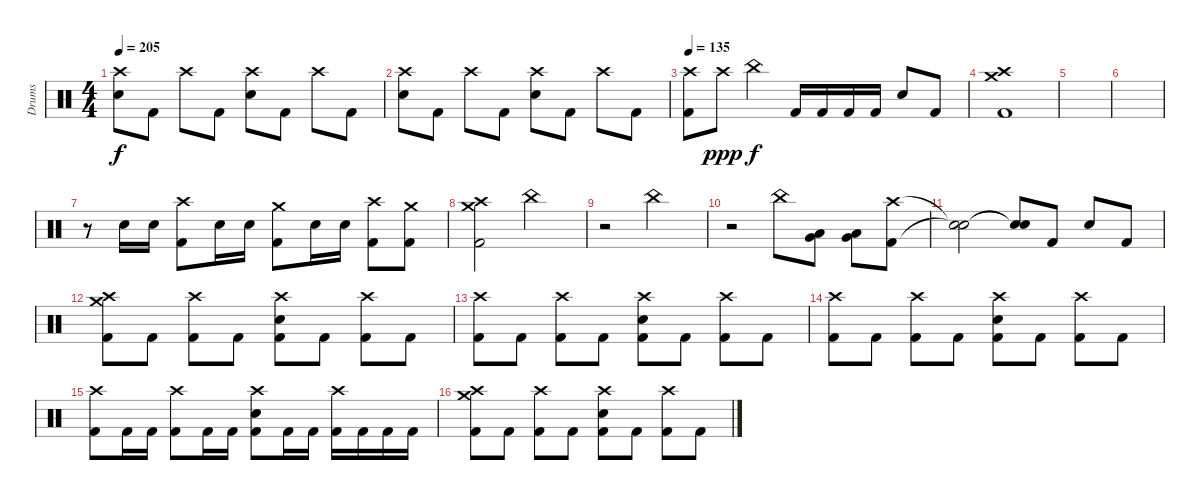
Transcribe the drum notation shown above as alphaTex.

\track ("Drums" "Drums") {instrument percussion}
\staff {score}
\articulation defaults
\ts (4 4)
\tempo 205
\clef neutral
\ks c
("Crash high (hit)" "Electric Snare (hit)").8{dy f} "Kick (hit) 2".8 "Crash high (hit)".8 "Kick (hit) 2".8 ("Crash high (hit)" "Electric Snare (hit)").8 "Kick (hit) 2".8 "Crash high (hit)".8 "Kick (hit) 2".8 |
("Crash high (hit)" "Electric Snare (hit)").8 "Kick (hit) 2".8 "Crash high (hit)".8 "Kick (hit) 2".8 ("Crash high (hit)" "Electric Snare (hit)").8 "Kick (hit) 2".8 "Crash high (hit)".8 "Kick (hit) 2".8 |
\tempo 135
("Crash high (hit)" "Kick (hit) 2").8 "Crash high (hit)".8{dy ppp} "China (hit)".4{dy f} "Kick (hit) 2".16 "Kick (hit) 2".16 "Kick (hit) 2".16 "Kick (hit) 2".16 "Electric Snare (hit)".8 "Kick (hit) 2".8 |
("Crash high (hit)" "Crash medium (hit)" "Kick (hit) 2").1 |
|
|
r.8 "Electric Snare (hit)".16 "Electric Snare (hit)".16 ("Crash high (hit)" "Kick (hit) 2").8 "Electric Snare (hit)".16 "Electric Snare (hit)".16 ("Crash medium (hit)" "Kick (hit) 2").8 "Electric Snare (hit)".16 "Electric Snare (hit)".16 ("Crash high (hit)" "Kick (hit) 2").8 ("Crash medium (hit)" "Kick (hit) 2").8 |
("Crash high (hit)" "Crash medium (hit)" "Kick (hit) 2").2 "China (hit)".2 |
r.2 "China (hit)".2 |
r.2 "China (hit)".8 ("Very Low Tom (hit)" "Low Tom (hit)").8 ("Very Low Tom (hit)" "Low Tom (hit)").8 ("Crash high (hit)" "Kick (hit) 2").8 |
("Snare (hit)"{t} "Snare (hit)"{t}).2 ("Snare (hit)"{t} "Snare (hit)"{t}).8 "Kick (hit) 2".8 "Electric Snare (hit)".8 "Kick (hit) 2".8 |
("Crash high (hit)" "Crash medium (hit)" "Kick (hit) 2").8 "Kick (hit) 2".8 ("Crash high (hit)" "Kick (hit) 2").8 "Kick (hit) 2".8 ("Crash high (hit)" "Electric Snare (hit)" "Kick (hit) 2").8 "Kick (hit) 2".8 ("Crash high (hit)" "Kick (hit) 2").8 "Kick (hit) 2".8 |
("Crash high (hit)" "Kick (hit) 2").8 "Kick (hit) 2".8 ("Crash high (hit)" "Kick (hit) 2").8 "Kick (hit) 2".8 ("Crash high (hit)" "Electric Snare (hit)" "Kick (hit) 2").8 "Kick (hit) 2".8 ("Crash high (hit)" "Kick (hit) 2").8 "Kick (hit) 2".8 |
("Crash high (hit)" "Kick (hit) 2").8 "Kick (hit) 2".8 ("Crash high (hit)" "Kick (hit) 2").8 "Kick (hit) 2".8 ("Crash high (hit)" "Electric Snare (hit)" "Kick (hit) 2").8 "Kick (hit) 2".8 ("Crash high (hit)" "Kick (hit) 2").8 "Kick (hit) 2".8 |
("Crash high (hit)" "Kick (hit) 2").8 "Kick (hit) 2".16 "Kick (hit) 2".16 ("Crash high (hit)" "Kick (hit) 2").8 "Kick (hit) 2".16 "Kick (hit) 2".16 ("Crash high (hit)" "Electric Snare (hit)" "Kick (hit) 2").8 "Kick (hit) 2".16 "Kick (hit) 2".16 ("Crash high (hit)" "Kick (hit) 2").16 "Kick (hit) 2".16 "Kick (hit) 2".16 "Kick (hit) 2".16 |
("Crash high (hit)" "Crash medium (hit)" "Kick (hit) 2").8 "Kick (hit) 2".8 ("Crash high (hit)" "Kick (hit) 2").8 "Kick (hit) 2".8 ("Crash high (hit)" "Electric Snare (hit)" "Kick (hit) 2").8 "Kick (hit) 2".8 ("Crash high (hit)" "Kick (hit) 2").8 "Kick (hit) 2".8
